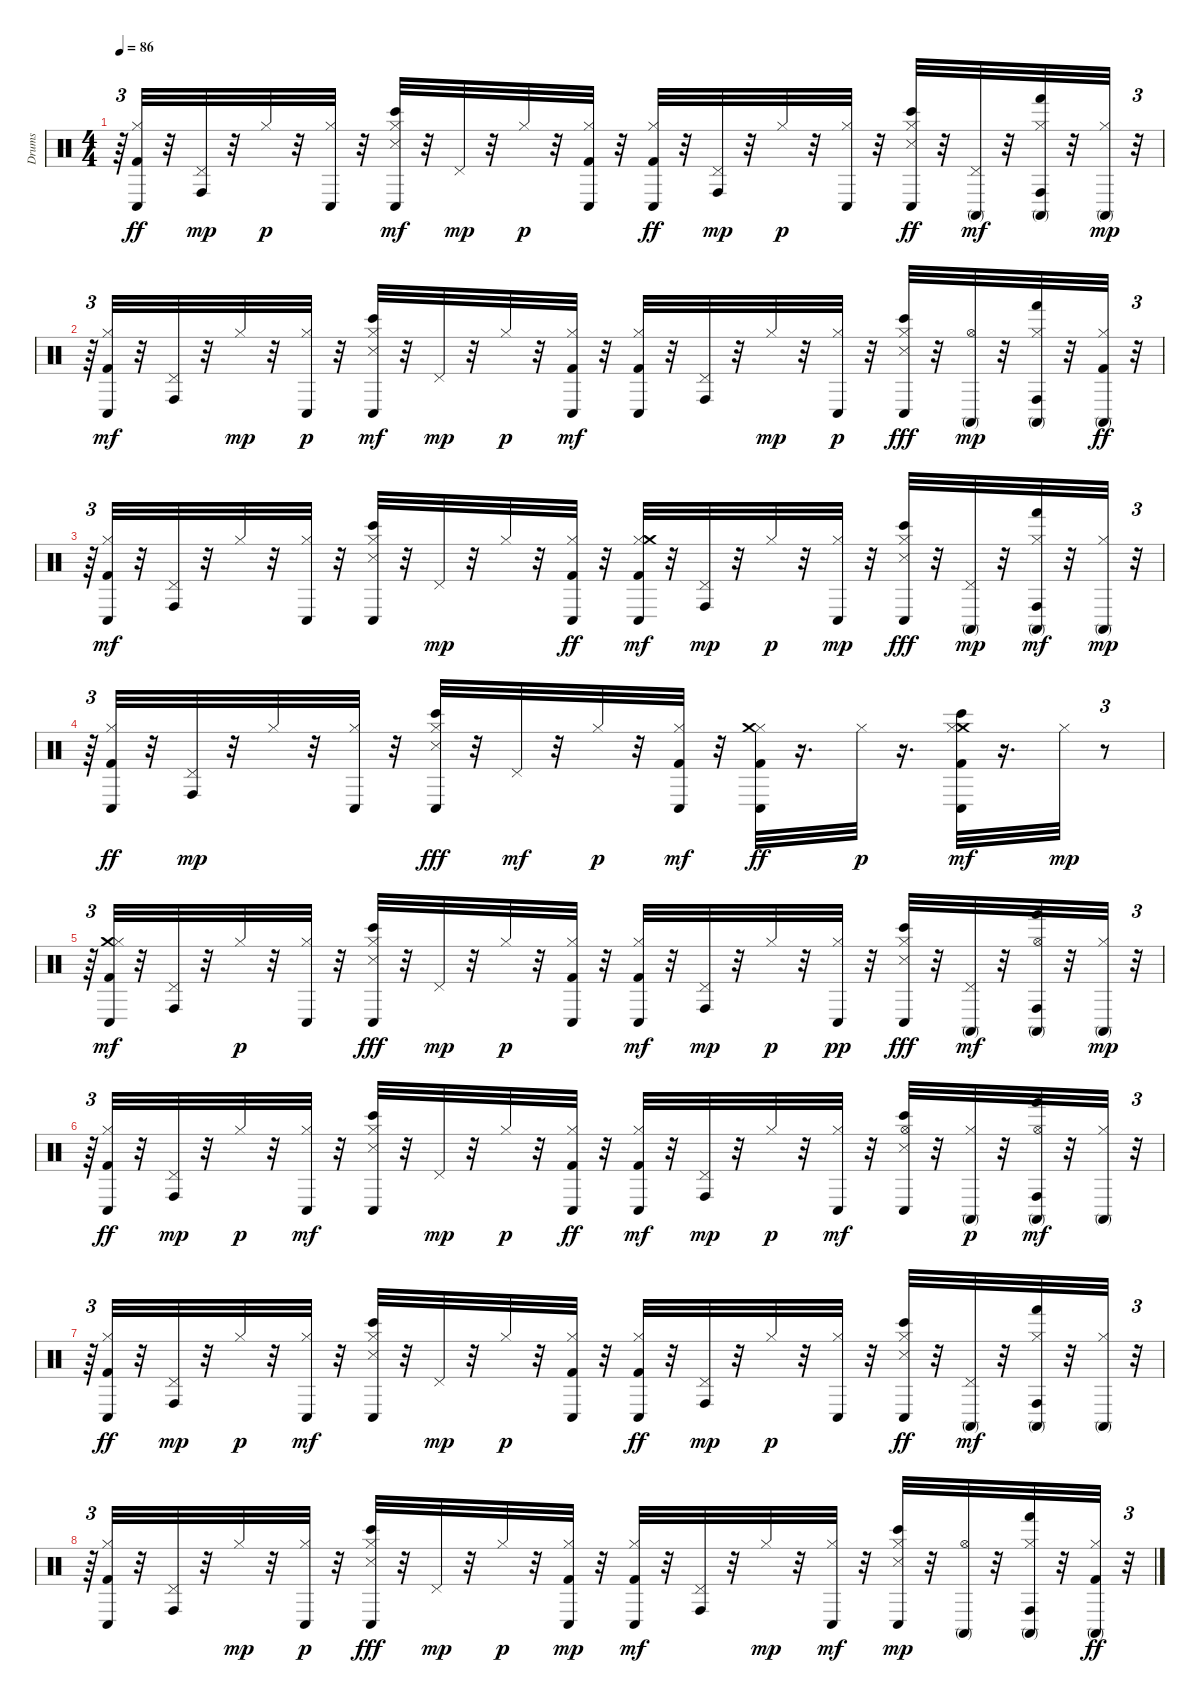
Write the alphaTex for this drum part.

\track ("Drums" "Drums") {instrument percussion}
\staff {score}
\articulation defaults
\ts (4 4)
\tempo 86
\clef neutral
\ks c
r.64{tu (3 2) dy mf} ("Kick (hit) 2" "Conga low (hit)" "Hi-Hat (closed)").32{dy ff} r.32 ("Conga high (hit)" "Pedal Hi-Hat (hit)").32{dy mp} r.32 "Hi-Hat (closed)".32{dy p} r.32 ("Conga low (hit)" "Hi-Hat (closed)").32 r.32 ("Snare (side stick) 3" "Bongo High (hit)" "Conga low (hit)" "Hi-Hat (closed)").32{dy mf} r.32 "Pedal Hi-Hat (hit)".32{dy mp} r.32 "Hi-Hat (closed)".32{dy p} r.32 ("Conga low (hit)" "Kick (hit) 2" "Hi-Hat (closed)").32 r.32 ("Hi-Hat (closed)" "Conga low (hit)" "Kick (hit) 2").32{dy ff} r.32 ("Pedal Hi-Hat (hit)" "Conga high (hit)").32{dy mp} r.32 "Hi-Hat (closed)".32{dy p} r.32 ("Conga low (hit)" "Hi-Hat (closed)").32 r.32 ("Bongo High (hit)" "Conga low (hit)" "Snare (side stick) 3" "Hi-Hat (closed)").32{dy ff} r.32 ("Conga high (mute)" "Pedal Hi-Hat (hit)").32{dy mf} r.32 ("Conga high (hit)" "Hi-Hat (closed)" "Conga high (mute)" "Hand (hit)").32 r.32 ("Conga high (mute)" "Hi-Hat (closed)").32{dy mp} r.32{tu (3 2)} |
r.64{tu (3 2)} ("Kick (hit) 2" "Conga low (hit)" "Hi-Hat (closed)").32{dy mf} r.32 ("Pedal Hi-Hat (hit)" "Conga high (hit)").32 r.32 "Hi-Hat (closed)".32{dy mp} r.32 ("Conga low (hit)" "Hi-Hat (closed)").32{dy p} r.32 ("Conga low (hit)" "Snare (side stick) 3" "Hi-Hat (closed)" "Bongo High (hit)").32{dy mf} r.32 "Pedal Hi-Hat (hit)".32{dy mp} r.32 "Hi-Hat (closed)".32{dy p} r.32 ("Kick (hit) 2" "Hi-Hat (closed)" "Conga low (hit)").32{dy mf} r.32 ("Hi-Hat (closed)" "Conga low (hit)" "Kick (hit) 2").32 r.32 ("Conga high (hit)" "Pedal Hi-Hat (hit)").32 r.32 "Hi-Hat (closed)".32{dy mp} r.32 ("Conga low (hit)" "Hi-Hat (closed)").32{dy p} r.32 ("Bongo High (hit)" "Conga low (hit)" "Snare (side stick) 3" "Hi-Hat (closed)").32{dy fff} r.32 ("Conga high (mute)" "Hi-Hat (open)").32{dy mp} r.32 ("Conga high (mute)" "Conga high (hit)" "Hi-Hat (closed)" "Hand (hit)").32 r.32 ("Conga high (mute)" "Hi-Hat (closed)" "Kick (hit) 2").32{dy ff} r.32{tu (3 2)} |
r.64{tu (3 2)} ("Hi-Hat (closed)" "Kick (hit) 2" "Conga low (hit)").32{dy mf} r.32 ("Pedal Hi-Hat (hit)" "Conga high (hit)").32 r.32 "Hi-Hat (closed)".32 r.32 ("Hi-Hat (closed)" "Conga low (hit)").32 r.32 ("Hi-Hat (closed)" "Bongo High (hit)" "Conga low (hit)" "Snare (side stick) 3").32 r.32 "Pedal Hi-Hat (hit)".32{dy mp} r.32 "Hi-Hat (closed)".32 r.32 ("Hi-Hat (closed)" "Conga low (hit)" "Kick (hit) 2").32{dy ff} r.32 ("Hi-Hat (closed)" "Kick (hit) 2" "Crash medium (hit)" "Conga low (hit)").32{dy mf} r.32 ("Pedal Hi-Hat (hit)" "Conga high (hit)").32{dy mp} r.32 "Hi-Hat (closed)".32{dy p} r.32 ("Conga low (hit)" "Hi-Hat (closed)").32{dy mp} r.32 ("Conga low (hit)" "Bongo High (hit)" "Snare (side stick) 3" "Hi-Hat (closed)").32{dy fff} r.32 ("Conga high (mute)" "Pedal Hi-Hat (hit)").32{dy mp} r.32 ("Hi-Hat (closed)" "Conga high (hit)" "Conga high (mute)" "Hand (hit)").32{dy mf} r.32 ("Conga high (mute)" "Hi-Hat (closed)").32{dy mp} r.32{tu (3 2)} |
r.64{tu (3 2)} ("Conga low (hit)" "Kick (hit) 2" "Hi-Hat (closed)").32{dy ff} r.32 ("Pedal Hi-Hat (hit)" "Conga high (hit)").32{dy mp} r.32 "Hi-Hat (closed)".32 r.32 ("Conga low (hit)" "Hi-Hat (closed)").32 r.32 ("Conga low (hit)" "Bongo High (hit)" "Hi-Hat (closed)" "Snare (side stick) 3").32{dy fff} r.32 "Pedal Hi-Hat (hit)".32{dy mf} r.32 "Hi-Hat (closed)".32{dy p} r.32 ("Conga low (hit)" "Hi-Hat (closed)" "Kick (hit) 2").32{dy mf} r.32 ("Conga low (hit)" "Hi-Hat (closed)" "Crash medium (hit)" "Kick (hit) 2").32{dy ff} r.16{d} "Hi-Hat (closed)".32{dy p} r.16{d} ("Bongo High (hit)" "Conga low (hit)" "Crash medium (hit)" "Kick (hit) 2" "Hi-Hat (closed)").32{dy mf} r.16{d} "Hi-Hat (closed)".32{dy mp} r.8{tu (3 2)} |
r.64{tu (3 2)} ("Kick (hit) 2" "Conga low (hit)" "Crash medium (hit)" "Hi-Hat (closed)").32{dy mf} r.32 ("Conga high (hit)" "Pedal Hi-Hat (hit)").32 r.32 "Hi-Hat (closed)".32{dy p} r.32 ("Conga low (hit)" "Hi-Hat (closed)").32 r.32 ("Bongo High (hit)" "Conga low (hit)" "Snare (side stick) 3" "Hi-Hat (closed)").32{dy fff} r.32 "Pedal Hi-Hat (hit)".32{dy mp} r.32 "Hi-Hat (closed)".32{dy p} r.32 ("Conga low (hit)" "Hi-Hat (closed)" "Kick (hit) 2").32 r.32 ("Conga low (hit)" "Kick (hit) 2" "Hi-Hat (closed)").32{dy mf} r.32 ("Pedal Hi-Hat (hit)" "Conga high (hit)").32{dy mp} r.32 "Hi-Hat (closed)".32{dy p} r.32 ("Conga low (hit)" "Hi-Hat (closed)").32{dy pp} r.32 ("Conga low (hit)" "Bongo High (hit)" "Hi-Hat (closed)" "Snare (side stick) 3").32{dy fff} r.32 ("Conga high (mute)" "Pedal Hi-Hat (hit)").32{dy mf} r.32 ("Hi-Hat (open)" "Conga high (mute)" "Conga high (hit)" "Hand (hit)").32 r.32 ("Conga high (mute)" "Hi-Hat (closed)").32{dy mp} r.32{tu (3 2)} |
r.64{tu (3 2)} ("Hi-Hat (closed)" "Kick (hit) 2" "Conga low (hit)").32{dy ff} r.32 ("Pedal Hi-Hat (hit)" "Conga high (hit)").32{dy mp} r.32 "Hi-Hat (closed)".32{dy p} r.32 ("Hi-Hat (closed)" "Conga low (hit)").32{dy mf} r.32 ("Snare (side stick) 3" "Hi-Hat (closed)" "Bongo High (hit)" "Conga low (hit)").32 r.32 "Pedal Hi-Hat (hit)".32{dy mp} r.32 "Hi-Hat (closed)".32{dy p} r.32 ("Hi-Hat (closed)" "Conga low (hit)" "Kick (hit) 2").32{dy ff} r.32 ("Kick (hit) 2" "Conga low (hit)" "Hi-Hat (closed)").32{dy mf} r.32 ("Pedal Hi-Hat (hit)" "Conga high (hit)").32{dy mp} r.32 "Hi-Hat (closed)".32{dy p} r.32 ("Hi-Hat (closed)" "Conga low (hit)").32{dy mf} r.32 ("Conga low (hit)" "Snare (side stick) 3" "Bongo High (hit)" "Hi-Hat (open)").32 r.32 ("Conga high (mute)" "Hi-Hat (closed)").32{dy p} r.32 ("Hi-Hat (open)" "Conga high (hit)" "Conga high (mute)" "Hand (hit)").32{dy mf} r.32 ("Hi-Hat (closed)" "Conga high (mute)").32 r.32{tu (3 2)} |
r.64{tu (3 2)} ("Kick (hit) 2" "Conga low (hit)" "Hi-Hat (closed)").32{dy ff} r.32 ("Pedal Hi-Hat (hit)" "Conga high (hit)").32{dy mp} r.32 "Hi-Hat (closed)".32{dy p} r.32 ("Hi-Hat (closed)" "Conga low (hit)").32{dy mf} r.32 ("Snare (side stick) 3" "Bongo High (hit)" "Conga low (hit)" "Hi-Hat (closed)").32 r.32 "Pedal Hi-Hat (hit)".32{dy mp} r.32 "Hi-Hat (closed)".32{dy p} r.32 ("Kick (hit) 2" "Conga low (hit)" "Hi-Hat (closed)").32 r.32 ("Hi-Hat (closed)" "Conga low (hit)" "Kick (hit) 2").32{dy ff} r.32 ("Pedal Hi-Hat (hit)" "Conga high (hit)").32{dy mp} r.32 "Hi-Hat (closed)".32{dy p} r.32 ("Conga low (hit)" "Hi-Hat (closed)").32 r.32 ("Bongo High (hit)" "Conga low (hit)" "Hi-Hat (closed)" "Snare (side stick) 3").32{dy ff} r.32 ("Conga high (mute)" "Pedal Hi-Hat (hit)").32{dy mf} r.32 ("Conga high (hit)" "Conga high (mute)" "Hi-Hat (closed)" "Hand (hit)").32 r.32 ("Hi-Hat (closed)" "Conga high (mute)").32 r.32{tu (3 2)} |
r.64{tu (3 2)} ("Kick (hit) 2" "Hi-Hat (closed)" "Conga low (hit)").32 r.32 ("Pedal Hi-Hat (hit)" "Conga high (hit)").32 r.32 "Hi-Hat (closed)".32{dy mp} r.32 ("Conga low (hit)" "Hi-Hat (closed)").32{dy p} r.32 ("Conga low (hit)" "Hi-Hat (closed)" "Bongo High (hit)" "Snare (side stick) 3").32{dy fff} r.32 "Pedal Hi-Hat (hit)".32{dy mp} r.32 "Hi-Hat (closed)".32{dy p} r.32 ("Kick (hit) 2" "Conga low (hit)" "Hi-Hat (closed)").32{dy mp} r.32 ("Conga low (hit)" "Hi-Hat (closed)" "Kick (hit) 2").32{dy mf} r.32 ("Conga high (hit)" "Pedal Hi-Hat (hit)").32 r.32 "Hi-Hat (closed)".32{dy mp} r.32 ("Hi-Hat (closed)" "Conga low (hit)").32{dy mf} r.32 ("Conga low (hit)" "Snare (side stick) 3" "Bongo High (hit)" "Hi-Hat (closed)").32{dy mp} r.32 ("Conga high (mute)" "Hi-Hat (open)").32 r.32 ("Hi-Hat (closed)" "Conga high (hit)" "Conga high (mute)" "Hand (hit)").32 r.32 ("Hi-Hat (closed)" "Conga high (mute)" "Kick (hit) 2").32{dy ff} r.32{tu (3 2)}
